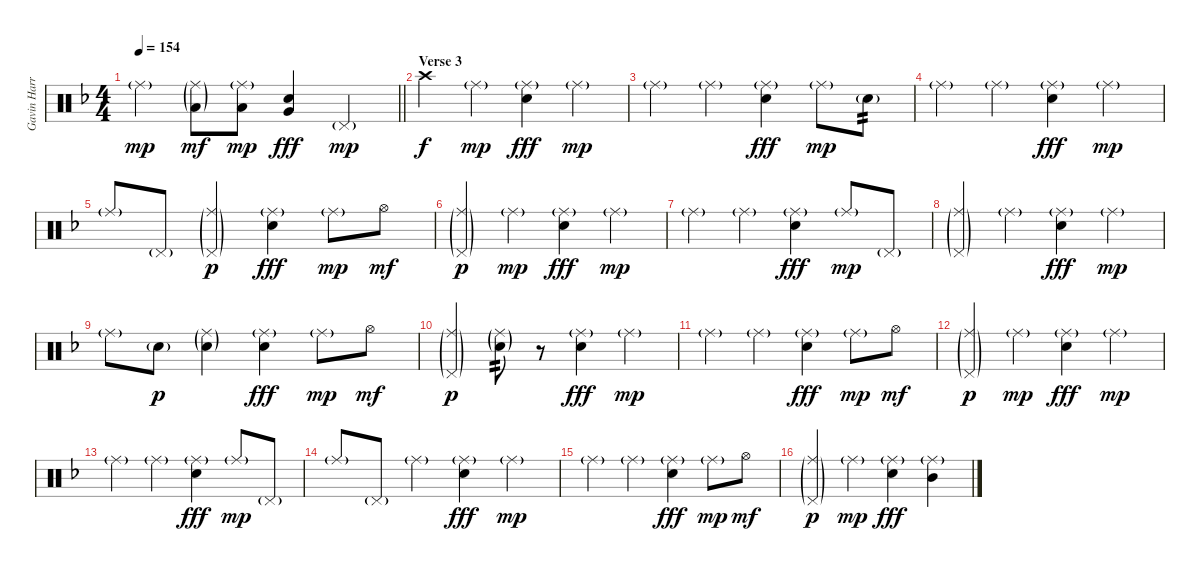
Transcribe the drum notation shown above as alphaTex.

\track ("Gavin Harrison Drums" "Gavin Harr") {instrument percussion}
\staff {score}
\articulation defaults
\ts (4 4)
\tempo 154
\clef neutral
\barLineRight lightlight
\ks dminor "Ride (middle)"{g}.4{dy mp}
("Ride (middle)"{g} "Low Tom (hit)"{g}).8{dy mf} ("Ride (middle)"{g} "Low Tom (hit)").8{dy mp} ("Electric Snare (hit)" "Very Low Tom (hit)").4{dy fff} "Pedal Hi-Hat (hit)"{g}.4{dy mp} |
\section ("" "Verse 3")
"Crash high (hit)".4{dy f} "Ride (middle)"{g}.4{dy mp} ("Ride (middle)"{g} "Electric Snare (hit)").4{dy fff} "Ride (middle)"{g}.4{dy mp} |
"Ride (middle)"{g}.4 "Ride (middle)"{g}.4 ("Ride (middle)"{g} "Electric Snare (hit)").4{dy fff} "Ride (middle)"{g}.8{dy mp} "Electric Snare (hit)"{g}.8{tp 2} |
"Ride (middle)"{g}.4 "Ride (middle)"{g}.4 ("Ride (middle)"{g} "Electric Snare (hit)").4{dy fff} "Ride (middle)"{g}.4{dy mp} |
"Ride (middle)"{g}.8 "Pedal Hi-Hat (hit)"{g}.8 ("Ride (middle)"{g} "Pedal Hi-Hat (hit)"{g}).4{dy p} ("Ride (middle)"{g} "Electric Snare (hit)").4{dy fff} "Ride (middle)"{g}.8{dy mp} "Hi-Hat (open)".8{dy mf} |
("Ride (middle)"{g} "Pedal Hi-Hat (hit)"{g}).4{dy p} "Ride (middle)"{g}.4{dy mp} ("Ride (middle)"{g} "Electric Snare (hit)").4{dy fff} "Ride (middle)"{g}.4{dy mp} |
"Ride (middle)"{g}.4 "Ride (middle)"{g}.4 ("Ride (middle)"{g} "Electric Snare (hit)").4{dy fff} "Ride (middle)"{g}.8{dy mp} "Pedal Hi-Hat (hit)"{g}.8 |
("Ride (middle)"{g} "Pedal Hi-Hat (hit)"{g}).4 "Ride (middle)"{g}.4 ("Ride (middle)"{g} "Electric Snare (hit)").4{dy fff} "Ride (middle)"{g}.4{dy mp} |
"Ride (middle)"{g}.8 "Electric Snare (hit)"{g}.8{dy p} ("Ride (middle)"{g} "Electric Snare (hit)"{g}).4 ("Ride (middle)"{g} "Electric Snare (hit)").4{dy fff} "Ride (middle)"{g}.8{dy mp} "Hi-Hat (open)".8{dy mf} |
("Ride (middle)"{g} "Pedal Hi-Hat (hit)"{g}).4{dy p} ("Ride (middle)"{g} "Electric Snare (hit)"{g}).8{tp 2} r.8 ("Ride (middle)"{g} "Electric Snare (hit)").4{dy fff} "Ride (middle)"{g}.4{dy mp} |
"Ride (middle)"{g}.4 "Ride (middle)"{g}.4 ("Ride (middle)"{g} "Electric Snare (hit)").4{dy fff} "Ride (middle)"{g}.8{dy mp} "Hi-Hat (open)".8{dy mf} |
("Ride (middle)"{g} "Pedal Hi-Hat (hit)"{g}).4{dy p} "Ride (middle)"{g}.4{dy mp} ("Ride (middle)"{g} "Electric Snare (hit)").4{dy fff} "Ride (middle)"{g}.4{dy mp} |
"Ride (middle)"{g}.4 "Ride (middle)"{g}.4 ("Ride (middle)"{g} "Electric Snare (hit)").4{dy fff} "Ride (middle)"{g}.8{dy mp} "Pedal Hi-Hat (hit)"{g}.8 |
"Ride (middle)"{g}.8 "Pedal Hi-Hat (hit)"{g}.8 "Ride (middle)"{g}.4 ("Ride (middle)"{g} "Electric Snare (hit)").4{dy fff} "Ride (middle)"{g}.4{dy mp} |
"Ride (middle)"{g}.4 "Ride (middle)"{g}.4 ("Ride (middle)"{g} "Electric Snare (hit)").4{dy fff} "Ride (middle)"{g}.8{dy mp} "Hi-Hat (open)".8{dy mf} |
("Ride (middle)"{g} "Pedal Hi-Hat (hit)"{g}).4{dy p} "Ride (middle)"{g}.4{dy mp} ("Ride (middle)"{g} "Electric Snare (hit)").4{dy fff} ("Ride (middle)"{g} "Mid Tom (hit)").4
